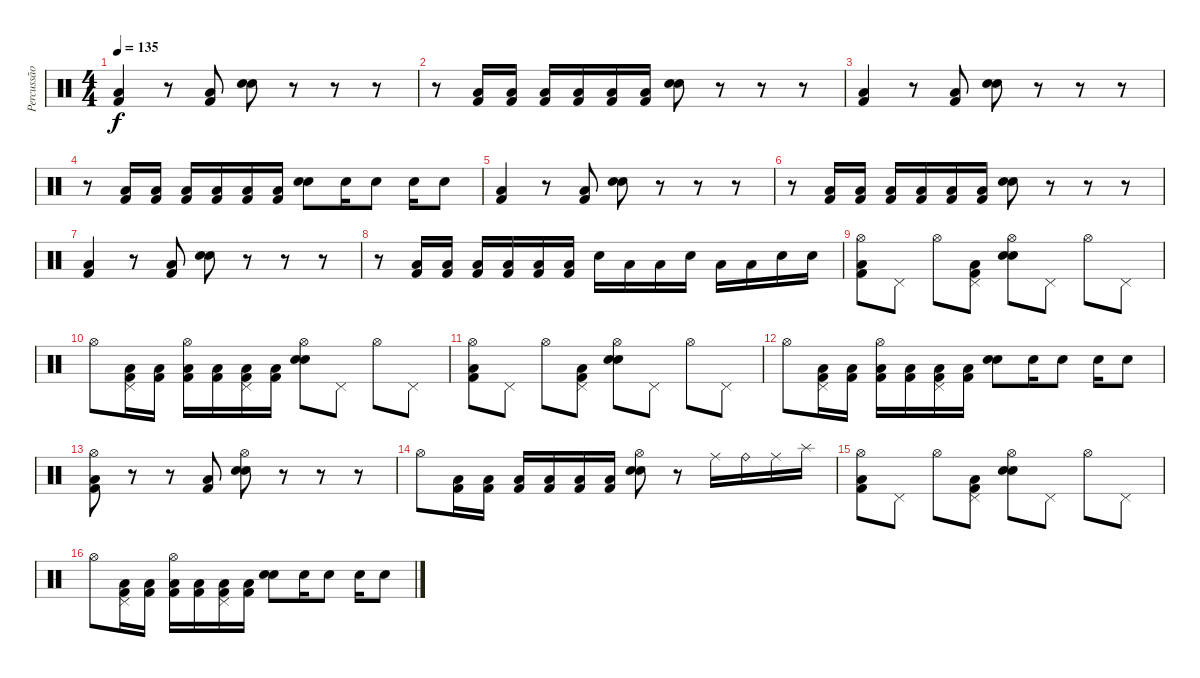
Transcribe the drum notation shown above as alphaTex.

\track ("Percussão" "Percussão") {instrument percussion}
\staff {score}
\articulation defaults
\ts (4 4)
\tempo 135
\clef neutral
\ks c
("Low Floor Tom (hit)" "Kick (hit) 2").4{dy f} r.8 ("Low Floor Tom (hit)" "Kick (hit) 2").8 ("Metronome (bell)" "Snare (hit) 2").8 r.8 r.8 r.8 |
r.8 ("Low Floor Tom (hit)" "Kick (hit) 2").16 ("Low Floor Tom (hit)" "Kick (hit) 2").16 ("Low Floor Tom (hit)" "Kick (hit) 2").16 ("Low Floor Tom (hit)" "Kick (hit) 2").16 ("Low Floor Tom (hit)" "Kick (hit) 2").16 ("Low Floor Tom (hit)" "Kick (hit) 2").16 ("Metronome (bell)" "Snare (hit) 2").8 r.8 r.8 r.8 |
("Low Floor Tom (hit)" "Kick (hit) 2").4 r.8 ("Low Floor Tom (hit)" "Kick (hit) 2").8 ("Metronome (bell)" "Snare (hit) 2").8 r.8 r.8 r.8 |
r.8 ("Low Floor Tom (hit)" "Kick (hit) 2").16 ("Low Floor Tom (hit)" "Kick (hit) 2").16 ("Low Floor Tom (hit)" "Kick (hit) 2").16 ("Low Floor Tom (hit)" "Kick (hit) 2").16 ("Low Floor Tom (hit)" "Kick (hit) 2").16 ("Low Floor Tom (hit)" "Kick (hit) 2").16 ("Metronome (bell)" "Snare (hit) 2").8 "Snare (hit) 2".16 "Snare (hit) 2".8 "Snare (hit) 2".16 "Snare (hit) 2".8 |
("Low Floor Tom (hit)" "Kick (hit) 2").4 r.8 ("Low Floor Tom (hit)" "Kick (hit) 2").8 ("Metronome (bell)" "Snare (hit) 2").8 r.8 r.8 r.8 |
r.8 ("Low Floor Tom (hit)" "Kick (hit) 2").16 ("Low Floor Tom (hit)" "Kick (hit) 2").16 ("Low Floor Tom (hit)" "Kick (hit) 2").16 ("Low Floor Tom (hit)" "Kick (hit) 2").16 ("Low Floor Tom (hit)" "Kick (hit) 2").16 ("Low Floor Tom (hit)" "Kick (hit) 2").16 ("Metronome (bell)" "Snare (hit) 2").8 r.8 r.8 r.8 |
("Low Floor Tom (hit)" "Kick (hit) 2").4 r.8 ("Low Floor Tom (hit)" "Kick (hit) 2").8 ("Metronome (bell)" "Snare (hit) 2").8 r.8 r.8 r.8 |
r.8 ("Low Floor Tom (hit)" "Kick (hit) 2").16 ("Low Floor Tom (hit)" "Kick (hit) 2").16 ("Low Floor Tom (hit)" "Kick (hit) 2").16 ("Low Floor Tom (hit)" "Kick (hit) 2").16 ("Low Floor Tom (hit)" "Kick (hit) 2").16 ("Low Floor Tom (hit)" "Kick (hit) 2").16 "Snare (hit) 2".16 "Low Floor Tom (hit)".16 "Low Tom (hit)".16 "Metronome (bell)".16 "Low Floor Tom (hit)".16 "Low Floor Tom (hit)".16 "Snare (hit) 2".16 "Snare (hit) 2".16 |
("Hi-Hat (open)" "Low Floor Tom (hit)" "Kick (hit) 2").8 "Pedal Hi-Hat (hit)".8 "Hi-Hat (open)".8 ("Pedal Hi-Hat (hit)" "Low Floor Tom (hit)" "Kick (hit) 2").8 ("Metronome (bell)" "Hi-Hat (open)" "Snare (hit) 2").8 "Pedal Hi-Hat (hit)".8 "Hi-Hat (open)".8 "Pedal Hi-Hat (hit)".8 |
"Hi-Hat (open)".8 ("Pedal Hi-Hat (hit)" "Low Floor Tom (hit)" "Kick (hit) 2").16 ("Low Floor Tom (hit)" "Kick (hit) 2").16 ("Hi-Hat (open)" "Low Floor Tom (hit)" "Kick (hit) 2").16 ("Low Floor Tom (hit)" "Kick (hit) 2").16 ("Pedal Hi-Hat (hit)" "Low Floor Tom (hit)" "Kick (hit) 2").16 ("Low Floor Tom (hit)" "Kick (hit) 2").16 ("Metronome (bell)" "Hi-Hat (open)" "Snare (hit) 2").8 "Pedal Hi-Hat (hit)".8 "Hi-Hat (open)".8 "Pedal Hi-Hat (hit)".8 |
("Hi-Hat (open)" "Low Floor Tom (hit)" "Kick (hit) 2").8 "Pedal Hi-Hat (hit)".8 "Hi-Hat (open)".8 ("Pedal Hi-Hat (hit)" "Low Floor Tom (hit)" "Kick (hit) 2").8 ("Metronome (bell)" "Hi-Hat (open)" "Snare (hit) 2").8 "Pedal Hi-Hat (hit)".8 "Hi-Hat (open)".8 "Pedal Hi-Hat (hit)".8 |
"Hi-Hat (open)".8 ("Pedal Hi-Hat (hit)" "Low Floor Tom (hit)" "Kick (hit) 2").16 ("Low Floor Tom (hit)" "Kick (hit) 2").16 ("Hi-Hat (open)" "Low Floor Tom (hit)" "Kick (hit) 2").16 ("Low Floor Tom (hit)" "Kick (hit) 2").16 ("Pedal Hi-Hat (hit)" "Low Floor Tom (hit)" "Kick (hit) 2").16 ("Low Floor Tom (hit)" "Kick (hit) 2").16 ("Metronome (bell)" "Snare (hit) 2").8 "Snare (hit) 2".16 "Snare (hit) 2".8 "Snare (hit) 2".16 "Snare (hit) 2".8 |
("Hi-Hat (open)" "Low Floor Tom (hit)" "Kick (hit) 2").8 r.8 r.8 ("Low Floor Tom (hit)" "Kick (hit) 2").8 ("Metronome (bell)" "Hi-Hat (open)" "Snare (hit) 2").8 r.8 r.8 r.8 |
"Hi-Hat (open)".8 ("Low Floor Tom (hit)" "Kick (hit) 2").16 ("Low Floor Tom (hit)" "Kick (hit) 2").16 ("Low Floor Tom (hit)" "Kick (hit) 2").16 ("Low Floor Tom (hit)" "Kick (hit) 2").16 ("Low Floor Tom (hit)" "Kick (hit) 2").16 ("Low Floor Tom (hit)" "Kick (hit) 2").16 ("Metronome (bell)" "Hi-Hat (open)" "Snare (hit) 2").8 r.8 "Ride (middle)".16 "Ride (bell)".16 "Ride (middle)".16 "Splash (hit)".16 |
("Hi-Hat (open)" "Low Floor Tom (hit)" "Kick (hit) 2").8 "Pedal Hi-Hat (hit)".8 "Hi-Hat (open)".8 ("Pedal Hi-Hat (hit)" "Low Floor Tom (hit)" "Kick (hit) 2").8 ("Metronome (bell)" "Hi-Hat (open)" "Snare (hit) 2").8 "Pedal Hi-Hat (hit)".8 "Hi-Hat (open)".8 "Pedal Hi-Hat (hit)".8 |
"Hi-Hat (open)".8 ("Pedal Hi-Hat (hit)" "Low Floor Tom (hit)" "Kick (hit) 2").16 ("Low Floor Tom (hit)" "Kick (hit) 2").16 ("Hi-Hat (open)" "Low Floor Tom (hit)" "Kick (hit) 2").16 ("Low Floor Tom (hit)" "Kick (hit) 2").16 ("Pedal Hi-Hat (hit)" "Low Floor Tom (hit)" "Kick (hit) 2").16 ("Low Floor Tom (hit)" "Kick (hit) 2").16 ("Metronome (bell)" "Snare (hit) 2").8 "Snare (hit) 2".16 "Snare (hit) 2".8 "Snare (hit) 2".16 "Snare (hit) 2".8
